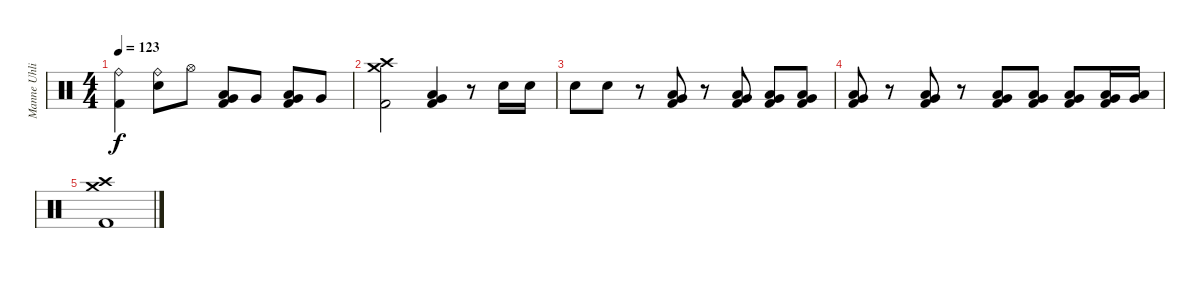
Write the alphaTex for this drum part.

\track ("Manne Uhlig" "Manne Uhli") {instrument percussion}
\staff {score}
\articulation defaults
\ts (4 4)
\tempo 123
\clef neutral
\ks c
("Ride (bell)" "Kick (hit) 2").4{dy f} ("Ride (bell)" "Snare (hit) 2").8 "Hi-Hat (open)".8 ("Low Tom (hit)" "Very Low Tom (hit)" "Kick (hit) 2").8 "Very Low Tom (hit)".8 ("Low Tom (hit)" "Very Low Tom (hit)" "Kick (hit) 2").8 "Very Low Tom (hit)".8 |
("Crash high (hit)" "Crash medium (hit)" "Kick (hit) 2").2 ("Low Tom (hit)" "Very Low Tom (hit)" "Kick (hit) 2").4 r.8 "Snare (hit) 2".16 "Snare (hit) 2".16 |
"Snare (hit) 2".8 "Snare (hit) 2".8 r.8 ("Low Tom (hit)" "Very Low Tom (hit)" "Kick (hit) 2").8 r.8 ("Low Tom (hit)" "Very Low Tom (hit)" "Kick (hit) 2").8 ("Low Tom (hit)" "Very Low Tom (hit)" "Kick (hit) 2").8 ("Low Tom (hit)" "Very Low Tom (hit)" "Kick (hit) 2").8 |
("Low Tom (hit)" "Very Low Tom (hit)" "Kick (hit) 2").8 r.8 ("Low Tom (hit)" "Very Low Tom (hit)" "Kick (hit) 2").8 r.8 ("Low Tom (hit)" "Very Low Tom (hit)" "Kick (hit) 2").8 ("Low Tom (hit)" "Very Low Tom (hit)" "Kick (hit) 2").8 ("Low Tom (hit)" "Very Low Tom (hit)" "Kick (hit) 2").8 ("Low Tom (hit)" "Very Low Tom (hit)" "Kick (hit) 2").16 ("Low Tom (hit)" "Very Low Tom (hit)").16 |
("Crash high (hit)" "Crash medium (hit)" "Kick (hit) 2").1
